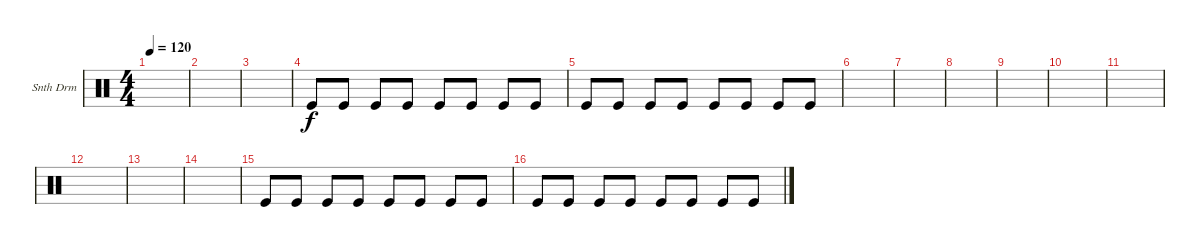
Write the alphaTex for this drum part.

\defaultSystemsLayout 4
\bracketExtendMode groupsimilarinstruments
\firstSystemTrackNameOrientation horizontal
\otherSystemsTrackNameOrientation horizontal
\track ("Synth Drum" "Snth Drm") {instrument percussion}
\staff {score}
\articulation defaults
\ts (4 4)
\tempo 120
\clef neutral
\scale
0.333333
\ks c
|
\scale
0.333333 |
\scale
0.333333 |
\scale
0.333333 "Kick (hit)".8 "Kick (hit)".8 "Kick (hit)".8 "Kick (hit)".8 "Kick (hit)".8 "Kick (hit)".8 "Kick (hit)".8 "Kick (hit)".8 |
\scale
0.333333 "Kick (hit)".8 "Kick (hit)".8 "Kick (hit)".8 "Kick (hit)".8 "Kick (hit)".8 "Kick (hit)".8 "Kick (hit)".8 "Kick (hit)".8 |
\scale
0.333333 |
\scale
0.333333 |
\scale
0.333333 |
\scale
0.333333 |
\scale
0.333333 |
\scale
0.333333 |
\scale
0.333333 |
\scale
0.333333 |
\scale
0.333333 |
\scale
0.333333 "Kick (hit)".8 "Kick (hit)".8 "Kick (hit)".8 "Kick (hit)".8 "Kick (hit)".8 "Kick (hit)".8 "Kick (hit)".8 "Kick (hit)".8 |
\scale
0.333333 "Kick (hit)".8 "Kick (hit)".8 "Kick (hit)".8 "Kick (hit)".8 "Kick (hit)".8 "Kick (hit)".8 "Kick (hit)".8 "Kick (hit)".8
